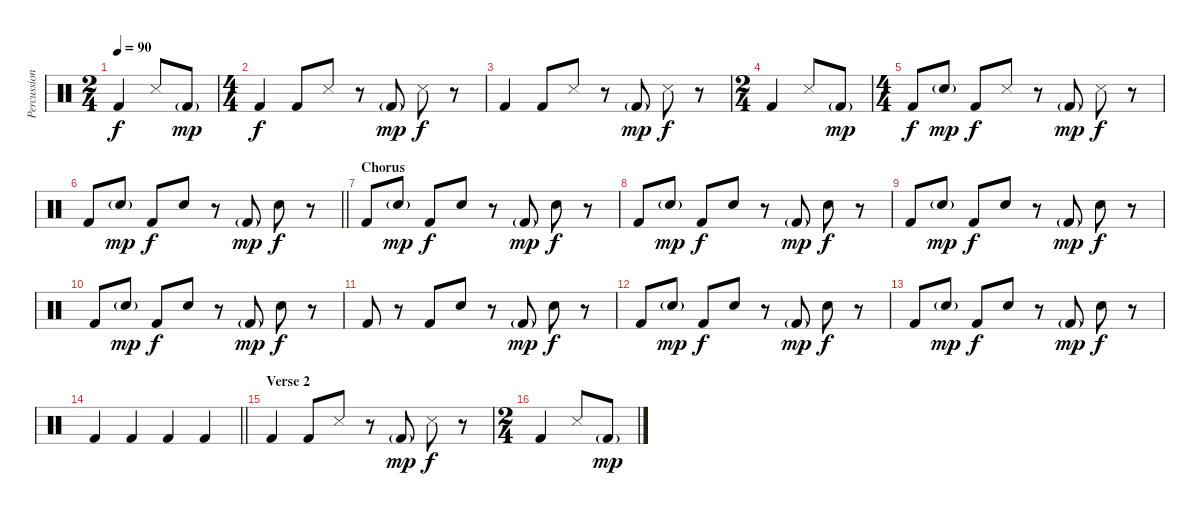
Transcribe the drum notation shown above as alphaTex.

\track ("Percussion" "Percussion") {instrument percussion}
\staff {score}
\articulation defaults
\ts (2 4)
\tempo 90
\clef neutral
\ks c "Kick (hit) 2".4{dy f} "Snare (side stick) 3".8 "Kick (hit) 2"{g}.8{dy mp}
|
\ts (4 4)
"Kick (hit) 2".4{dy f} "Kick (hit) 2".8 "Snare (side stick) 3".8 r.8 "Kick (hit) 2"{g}.8{dy mp} "Snare (side stick) 3".8{dy f} r.8 |
"Kick (hit) 2".4 "Kick (hit) 2".8 "Snare (side stick) 3".8 r.8 "Kick (hit) 2"{g}.8{dy mp} "Snare (side stick) 3".8{dy f} r.8 |
\ts (2 4)
"Kick (hit) 2".4 "Snare (side stick) 3".8 "Kick (hit) 2"{g}.8{dy mp} |
\ts (4 4)
"Kick (hit) 2".8{dy f} "Snare (hit) 2"{g}.8{dy mp} "Kick (hit) 2".8{dy f} "Snare (side stick) 3".8 r.8 "Kick (hit) 2"{g}.8{dy mp} "Snare (side stick) 3".8{dy f} r.8 |
\barLineRight lightlight "Kick (hit) 2".8 "Snare (hit) 2"{g}.8{dy mp} "Kick (hit) 2".8{dy f} "Snare (hit) 2".8
r.8 "Kick (hit) 2"{g}.8{dy mp} "Snare (hit) 2".8{dy f} r.8 |
\section ("" "Chorus")
"Kick (hit) 2".8 "Snare (hit) 2"{g}.8{dy mp} "Kick (hit) 2".8{dy f} "Snare (hit) 2".8 r.8 "Kick (hit) 2"{g}.8{dy mp} "Snare (hit) 2".8{dy f} r.8 |
"Kick (hit) 2".8 "Snare (hit) 2"{g}.8{dy mp} "Kick (hit) 2".8{dy f} "Snare (hit) 2".8 r.8 "Kick (hit) 2"{g}.8{dy mp} "Snare (hit) 2".8{dy f} r.8 |
"Kick (hit) 2".8 "Snare (hit) 2"{g}.8{dy mp} "Kick (hit) 2".8{dy f} "Snare (hit) 2".8 r.8 "Kick (hit) 2"{g}.8{dy mp} "Snare (hit) 2".8{dy f} r.8 |
"Kick (hit) 2".8 "Snare (hit) 2"{g}.8{dy mp} "Kick (hit) 2".8{dy f} "Snare (hit) 2".8 r.8 "Kick (hit) 2"{g}.8{dy mp} "Snare (hit) 2".8{dy f} r.8 |
"Kick (hit) 2".8 r.8 "Kick (hit) 2".8 "Snare (hit) 2".8 r.8 "Kick (hit) 2"{g}.8{dy mp} "Snare (hit) 2".8{dy f} r.8 |
"Kick (hit) 2".8 "Snare (hit) 2"{g}.8{dy mp} "Kick (hit) 2".8{dy f} "Snare (hit) 2".8 r.8 "Kick (hit) 2"{g}.8{dy mp} "Snare (hit) 2".8{dy f} r.8 |
"Kick (hit) 2".8 "Snare (hit) 2"{g}.8{dy mp} "Kick (hit) 2".8{dy f} "Snare (hit) 2".8 r.8 "Kick (hit) 2"{g}.8{dy mp} "Snare (hit) 2".8{dy f} r.8 |
\barLineRight lightlight "Kick (hit) 2".4 "Kick (hit) 2".4 "Kick (hit) 2".4 "Kick (hit) 2".4
|
\section ("" "Verse 2")
"Kick (hit) 2".4 "Kick (hit) 2".8 "Snare (side stick) 3".8 r.8 "Kick (hit) 2"{g}.8{dy mp} "Snare (side stick) 3".8{dy f} r.8 |
\ts (2 4)
"Kick (hit) 2".4 "Snare (side stick) 3".8 "Kick (hit) 2"{g}.8{dy mp}
